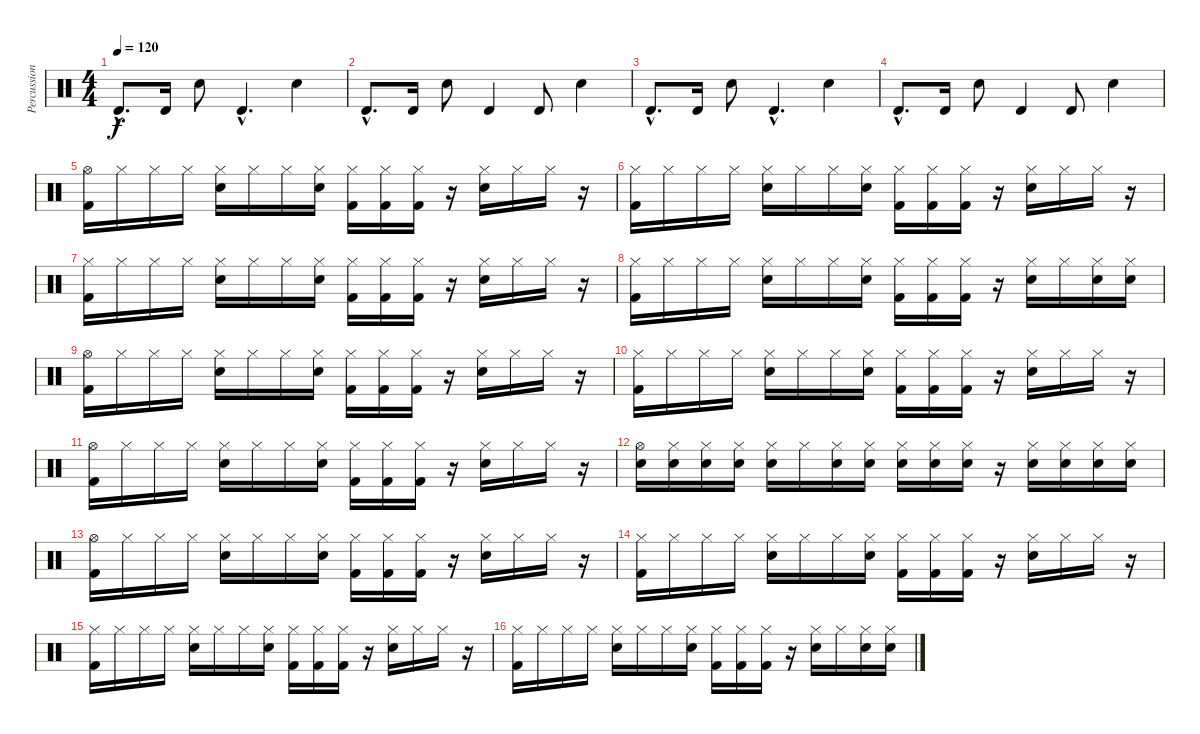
\track ("Percussion" "Percussion") {instrument percussion}
\staff {score}
\articulation defaults
\ts (4 4)
\tempo 120
\clef neutral
\ks c "Timbale high (hit)"{hac}.8{d dy f} "Timbale high (hit)".16 "Hand Clap (hit)".8 "Timbale high (hit)"{hac}.4{d} "Hand Clap (hit)".4
|
"Timbale high (hit)"{hac}.8{d} "Timbale high (hit)".16 "Hand Clap (hit)".8 "Timbale high (hit)".4 "Timbale high (hit)".8 "Hand Clap (hit)".4 |
"Timbale high (hit)"{hac}.8{d} "Timbale high (hit)".16 "Hand Clap (hit)".8 "Timbale high (hit)"{hac}.4{d} "Hand Clap (hit)".4 |
"Timbale high (hit)"{hac}.8{d} "Timbale high (hit)".16 "Hand Clap (hit)".8 "Timbale high (hit)".4 "Timbale high (hit)".8 "Hand Clap (hit)".4 |
("Hi-Hat (open)" "Kick (hit) 2").16 "Hi-Hat (closed)".16 "Hi-Hat (closed)".16 "Hi-Hat (closed)".16 ("Hi-Hat (closed)" "Snare (hit) 2").16 "Hi-Hat (closed)".16 "Hi-Hat (closed)".16 ("Hi-Hat (closed)" "Snare (hit) 2").16 ("Hi-Hat (closed)" "Kick (hit) 2").16 ("Hi-Hat (closed)" "Kick (hit) 2").16 ("Hi-Hat (closed)" "Kick (hit) 2").16 r.16 ("Hi-Hat (closed)" "Snare (hit) 2").16 "Hi-Hat (closed)".16 "Hi-Hat (closed)".16 r.16 |
("Hi-Hat (closed)" "Kick (hit) 2").16 "Hi-Hat (closed)".16 "Hi-Hat (closed)".16 "Hi-Hat (closed)".16 ("Hi-Hat (closed)" "Snare (hit) 2").16 "Hi-Hat (closed)".16 "Hi-Hat (closed)".16 ("Hi-Hat (closed)" "Snare (hit) 2").16 ("Hi-Hat (closed)" "Kick (hit) 2").16 ("Hi-Hat (closed)" "Kick (hit) 2").16 ("Hi-Hat (closed)" "Kick (hit) 2").16 r.16 ("Hi-Hat (closed)" "Snare (hit) 2").16 "Hi-Hat (closed)".16 "Hi-Hat (closed)".16 r.16 |
("Hi-Hat (closed)" "Kick (hit) 2").16 "Hi-Hat (closed)".16 "Hi-Hat (closed)".16 "Hi-Hat (closed)".16 ("Hi-Hat (closed)" "Snare (hit) 2").16 "Hi-Hat (closed)".16 "Hi-Hat (closed)".16 ("Hi-Hat (closed)" "Snare (hit) 2").16 ("Hi-Hat (closed)" "Kick (hit) 2").16 ("Hi-Hat (closed)" "Kick (hit) 2").16 ("Hi-Hat (closed)" "Kick (hit) 2").16 r.16 ("Hi-Hat (closed)" "Snare (hit) 2").16 "Hi-Hat (closed)".16 "Hi-Hat (closed)".16 r.16 |
("Hi-Hat (closed)" "Kick (hit) 2").16 "Hi-Hat (closed)".16 "Hi-Hat (closed)".16 "Hi-Hat (closed)".16 ("Hi-Hat (closed)" "Snare (hit) 2").16 "Hi-Hat (closed)".16 "Hi-Hat (closed)".16 ("Hi-Hat (closed)" "Snare (hit) 2").16 ("Hi-Hat (closed)" "Kick (hit) 2").16 ("Hi-Hat (closed)" "Kick (hit) 2").16 ("Hi-Hat (closed)" "Kick (hit) 2").16 r.16 ("Hi-Hat (closed)" "Snare (hit) 2").16 "Hi-Hat (closed)".16 ("Hi-Hat (closed)" "Snare (hit) 2").16 ("Hi-Hat (closed)" "Snare (hit) 2").16 |
("Hi-Hat (open)" "Kick (hit) 2").16 "Hi-Hat (closed)".16 "Hi-Hat (closed)".16 "Hi-Hat (closed)".16 ("Hi-Hat (closed)" "Snare (hit) 2").16 "Hi-Hat (closed)".16 "Hi-Hat (closed)".16 ("Hi-Hat (closed)" "Snare (hit) 2").16 ("Hi-Hat (closed)" "Kick (hit) 2").16 ("Hi-Hat (closed)" "Kick (hit) 2").16 ("Hi-Hat (closed)" "Kick (hit) 2").16 r.16 ("Hi-Hat (closed)" "Snare (hit) 2").16 "Hi-Hat (closed)".16 "Hi-Hat (closed)".16 r.16 |
("Hi-Hat (closed)" "Kick (hit) 2").16 "Hi-Hat (closed)".16 "Hi-Hat (closed)".16 "Hi-Hat (closed)".16 ("Hi-Hat (closed)" "Snare (hit) 2").16 "Hi-Hat (closed)".16 "Hi-Hat (closed)".16 ("Hi-Hat (closed)" "Snare (hit) 2").16 ("Hi-Hat (closed)" "Kick (hit) 2").16 ("Hi-Hat (closed)" "Kick (hit) 2").16 ("Hi-Hat (closed)" "Kick (hit) 2").16 r.16 ("Hi-Hat (closed)" "Snare (hit) 2").16 "Hi-Hat (closed)".16 "Hi-Hat (closed)".16 r.16 |
("Hi-Hat (open)" "Kick (hit) 2").16 "Hi-Hat (closed)".16 "Hi-Hat (closed)".16 "Hi-Hat (closed)".16 ("Hi-Hat (closed)" "Snare (hit) 2").16 "Hi-Hat (closed)".16 "Hi-Hat (closed)".16 ("Hi-Hat (closed)" "Snare (hit) 2").16 ("Hi-Hat (closed)" "Kick (hit) 2").16 ("Hi-Hat (closed)" "Kick (hit) 2").16 ("Hi-Hat (closed)" "Kick (hit) 2").16 r.16 ("Hi-Hat (closed)" "Snare (hit) 2").16 "Hi-Hat (closed)".16 "Hi-Hat (closed)".16 r.16 |
("Hi-Hat (open)" "Snare (hit) 2").16 ("Hi-Hat (closed)" "Snare (hit) 2").16 ("Hi-Hat (closed)" "Snare (hit) 2").16 ("Hi-Hat (closed)" "Snare (hit) 2").16 ("Hi-Hat (closed)" "Snare (hit) 2").16 "Hi-Hat (closed)".16 ("Hi-Hat (closed)" "Snare (hit) 2").16 ("Hi-Hat (closed)" "Snare (hit) 2").16 ("Hi-Hat (closed)" "Snare (hit) 2").16 ("Hi-Hat (closed)" "Snare (hit) 2").16 ("Hi-Hat (closed)" "Snare (hit) 2").16 r.16 ("Hi-Hat (closed)" "Snare (hit) 2").16 ("Hi-Hat (closed)" "Snare (hit) 2").16 ("Hi-Hat (closed)" "Snare (hit) 2").16 ("Hi-Hat (closed)" "Snare (hit) 2").16 |
("Hi-Hat (open)" "Kick (hit) 2").16 "Hi-Hat (closed)".16 "Hi-Hat (closed)".16 "Hi-Hat (closed)".16 ("Hi-Hat (closed)" "Snare (hit) 2").16 "Hi-Hat (closed)".16 "Hi-Hat (closed)".16 ("Hi-Hat (closed)" "Snare (hit) 2").16 ("Hi-Hat (closed)" "Kick (hit) 2").16 ("Hi-Hat (closed)" "Kick (hit) 2").16 ("Hi-Hat (closed)" "Kick (hit) 2").16 r.16 ("Hi-Hat (closed)" "Snare (hit) 2").16 "Hi-Hat (closed)".16 "Hi-Hat (closed)".16 r.16 |
("Hi-Hat (closed)" "Kick (hit) 2").16 "Hi-Hat (closed)".16 "Hi-Hat (closed)".16 "Hi-Hat (closed)".16 ("Hi-Hat (closed)" "Snare (hit) 2").16 "Hi-Hat (closed)".16 "Hi-Hat (closed)".16 ("Hi-Hat (closed)" "Snare (hit) 2").16 ("Hi-Hat (closed)" "Kick (hit) 2").16 ("Hi-Hat (closed)" "Kick (hit) 2").16 ("Hi-Hat (closed)" "Kick (hit) 2").16 r.16 ("Hi-Hat (closed)" "Snare (hit) 2").16 "Hi-Hat (closed)".16 "Hi-Hat (closed)".16 r.16 |
("Hi-Hat (closed)" "Kick (hit) 2").16 "Hi-Hat (closed)".16 "Hi-Hat (closed)".16 "Hi-Hat (closed)".16 ("Hi-Hat (closed)" "Snare (hit) 2").16 "Hi-Hat (closed)".16 "Hi-Hat (closed)".16 ("Hi-Hat (closed)" "Snare (hit) 2").16 ("Hi-Hat (closed)" "Kick (hit) 2").16 ("Hi-Hat (closed)" "Kick (hit) 2").16 ("Hi-Hat (closed)" "Kick (hit) 2").16 r.16 ("Hi-Hat (closed)" "Snare (hit) 2").16 "Hi-Hat (closed)".16 "Hi-Hat (closed)".16 r.16 |
("Hi-Hat (closed)" "Kick (hit) 2").16 "Hi-Hat (closed)".16 "Hi-Hat (closed)".16 "Hi-Hat (closed)".16 ("Hi-Hat (closed)" "Snare (hit) 2").16 "Hi-Hat (closed)".16 "Hi-Hat (closed)".16 ("Hi-Hat (closed)" "Snare (hit) 2").16 ("Hi-Hat (closed)" "Kick (hit) 2").16 ("Hi-Hat (closed)" "Kick (hit) 2").16 ("Hi-Hat (closed)" "Kick (hit) 2").16 r.16 ("Hi-Hat (closed)" "Snare (hit) 2").16 "Hi-Hat (closed)".16 ("Hi-Hat (closed)" "Snare (hit) 2").16 ("Hi-Hat (closed)" "Snare (hit) 2").16
